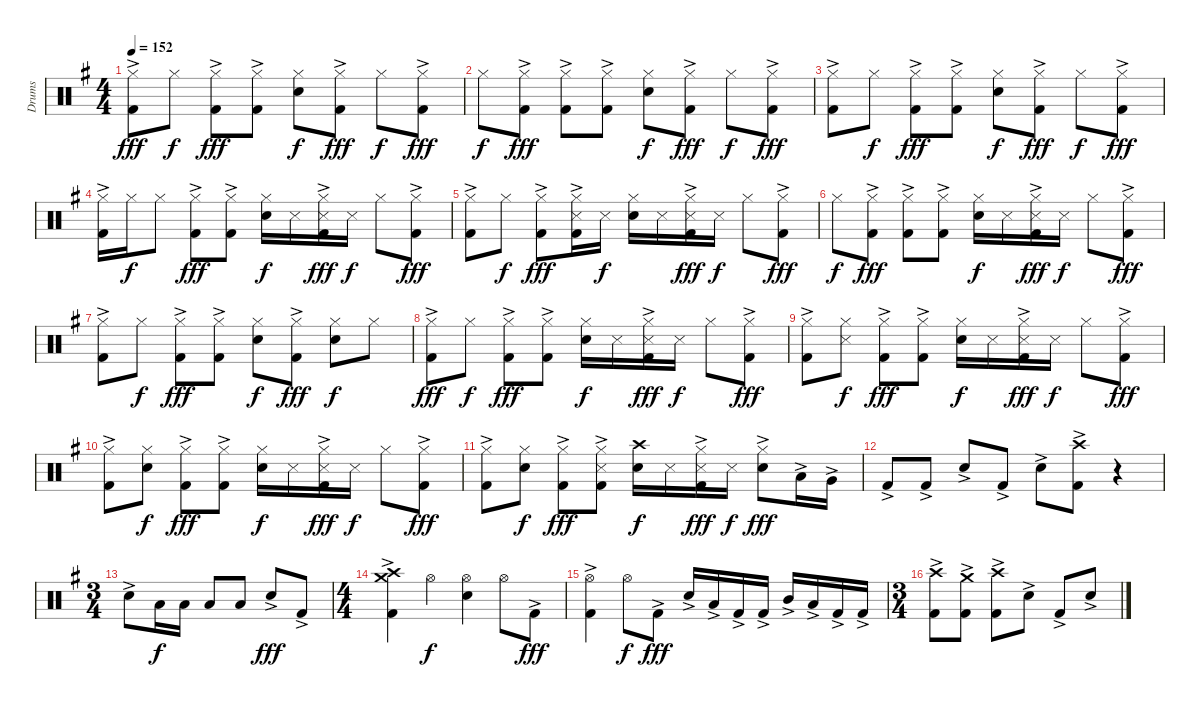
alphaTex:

\track ("Drums" "Drums") {instrument percussion}
\staff {score}
\articulation defaults
\ts (4 4)
\tempo 152
\clef neutral
\ks eminor
("Hi-Hat (closed)" "Kick (hit) 2"{ac}).8{dy fff} "Hi-Hat (closed)".8{dy f} ("Hi-Hat (closed)" "Kick (hit) 2"{ac}).8{dy fff} ("Hi-Hat (closed)" "Kick (hit) 2"{ac}).8 ("Hi-Hat (closed)" "Snare (hit) 2").8{dy f} ("Hi-Hat (closed)" "Kick (hit) 2"{ac}).8{dy fff} "Hi-Hat (closed)".8{dy f} ("Hi-Hat (closed)" "Kick (hit) 2"{ac}).8{dy fff} |
"Hi-Hat (closed)".8{dy f} ("Hi-Hat (closed)" "Kick (hit) 2"{ac}).8{dy fff} ("Hi-Hat (closed)" "Kick (hit) 2"{ac}).8 ("Hi-Hat (closed)" "Kick (hit) 2"{ac}).8 ("Hi-Hat (closed)" "Snare (hit) 2").8{dy f} ("Hi-Hat (closed)" "Kick (hit) 2"{ac}).8{dy fff} "Hi-Hat (closed)".8{dy f} ("Hi-Hat (closed)" "Kick (hit) 2"{ac}).8{dy fff} |
("Hi-Hat (closed)" "Kick (hit) 2"{ac}).8 "Hi-Hat (closed)".8{dy f} ("Hi-Hat (closed)" "Kick (hit) 2"{ac}).8{dy fff} ("Hi-Hat (closed)" "Kick (hit) 2"{ac}).8 ("Hi-Hat (closed)" "Snare (hit) 2").8{dy f} ("Hi-Hat (closed)" "Kick (hit) 2"{ac}).8{dy fff} "Hi-Hat (closed)".8{dy f} ("Hi-Hat (closed)" "Kick (hit) 2"{ac}).8{dy fff} |
("Hi-Hat (closed)" "Kick (hit) 2"{ac}).16 "Hi-Hat (closed)".16{dy f} "Hi-Hat (closed)".8 ("Hi-Hat (closed)" "Kick (hit) 2"{ac}).8{dy fff} ("Hi-Hat (closed)" "Kick (hit) 2"{ac}).8 ("Hi-Hat (closed)" "Snare (hit) 2").16{dy f} "Snare (side stick) 3".16 ("Hi-Hat (closed)" "Snare (side stick) 3" "Kick (hit) 2"{ac}).16{dy fff} "Snare (side stick) 3".16{dy f} "Hi-Hat (closed)".8 ("Hi-Hat (closed)" "Kick (hit) 2"{ac}).8{dy fff} |
("Hi-Hat (closed)" "Kick (hit) 2"{ac}).8 "Hi-Hat (closed)".8{dy f} ("Hi-Hat (closed)" "Kick (hit) 2"{ac}).8{dy fff} ("Hi-Hat (closed)" "Snare (side stick) 3" "Kick (hit) 2"{ac}).16 "Snare (side stick) 3".16{dy f} ("Hi-Hat (closed)" "Snare (hit) 2").16 "Snare (side stick) 3".16 ("Hi-Hat (closed)" "Snare (side stick) 3" "Kick (hit) 2"{ac}).16{dy fff} "Snare (side stick) 3".16{dy f} "Hi-Hat (closed)".8 ("Hi-Hat (closed)" "Kick (hit) 2"{ac}).8{dy fff} |
"Hi-Hat (closed)".8{dy f} ("Hi-Hat (closed)" "Kick (hit) 2"{ac}).8{dy fff} ("Hi-Hat (closed)" "Kick (hit) 2"{ac}).8 ("Hi-Hat (closed)" "Kick (hit) 2"{ac}).8 ("Hi-Hat (closed)" "Snare (hit) 2").16{dy f} "Snare (side stick) 3".16 ("Hi-Hat (closed)" "Snare (side stick) 3" "Kick (hit) 2"{ac}).16{dy fff} "Snare (side stick) 3".16{dy f} "Hi-Hat (closed)".8 ("Hi-Hat (closed)" "Kick (hit) 2"{ac}).8{dy fff} |
("Hi-Hat (closed)" "Kick (hit) 2"{ac}).8 "Hi-Hat (closed)".8{dy f} ("Hi-Hat (closed)" "Kick (hit) 2"{ac}).8{dy fff} ("Hi-Hat (closed)" "Kick (hit) 2"{ac}).8 ("Hi-Hat (closed)" "Snare (hit) 2").8{dy f} ("Hi-Hat (closed)" "Kick (hit) 2"{ac}).8{dy fff} ("Hi-Hat (closed)" "Snare (hit) 2").8{dy f} "Hi-Hat (closed)".8 |
("Hi-Hat (closed)" "Kick (hit) 2"{ac}).8{dy fff} "Hi-Hat (closed)".8{dy f} ("Hi-Hat (closed)" "Kick (hit) 2"{ac}).8{dy fff} ("Hi-Hat (closed)" "Kick (hit) 2"{ac}).8 ("Hi-Hat (closed)" "Snare (hit) 2").16{dy f} "Snare (side stick) 3".16 ("Hi-Hat (closed)" "Snare (side stick) 3" "Kick (hit) 2"{ac}).16{dy fff} "Snare (side stick) 3".16{dy f} "Hi-Hat (closed)".8 ("Hi-Hat (closed)" "Kick (hit) 2"{ac}).8{dy fff} |
("Hi-Hat (closed)" "Kick (hit) 2"{ac}).8 ("Hi-Hat (closed)" "Snare (side stick) 3").8{dy f} ("Hi-Hat (closed)" "Kick (hit) 2"{ac}).8{dy fff} ("Hi-Hat (closed)" "Kick (hit) 2"{ac}).8 ("Hi-Hat (closed)" "Snare (hit) 2").16{dy f} "Snare (side stick) 3".16 ("Hi-Hat (closed)" "Snare (side stick) 3" "Kick (hit) 2"{ac}).16{dy fff} "Snare (side stick) 3".16{dy f} "Hi-Hat (closed)".8 ("Hi-Hat (closed)" "Kick (hit) 2"{ac}).8{dy fff} |
("Hi-Hat (closed)" "Kick (hit) 2"{ac}).8 ("Hi-Hat (closed)" "Snare (hit) 2").8{dy f} ("Hi-Hat (closed)" "Kick (hit) 2"{ac}).8{dy fff} ("Hi-Hat (closed)" "Kick (hit) 2"{ac}).8 ("Hi-Hat (closed)" "Snare (hit) 2").16{dy f} "Snare (side stick) 3".16 ("Hi-Hat (closed)" "Snare (side stick) 3" "Kick (hit) 2"{ac}).16{dy fff} "Snare (side stick) 3".16{dy f} "Hi-Hat (closed)".8 ("Hi-Hat (closed)" "Kick (hit) 2"{ac}).8{dy fff} |
("Hi-Hat (closed)" "Kick (hit) 2"{ac}).8 ("Hi-Hat (closed)" "Snare (hit) 2").8{dy f} ("Hi-Hat (closed)" "Kick (hit) 2"{ac}).8{dy fff} ("Hi-Hat (closed)" "Snare (side stick) 3" "Kick (hit) 2"{ac}).8 ("Crash high (hit)" "Snare (hit) 2").16{dy f} "Snare (side stick) 3".16 ("Hi-Hat (closed)" "Snare (side stick) 3" "Kick (hit) 2"{ac}).16{dy fff} "Snare (side stick) 3".16{dy f} ("Hi-Hat (closed)" "Snare (hit) 2"{ac}).8{dy fff} "Low Tom (hit)"{ac}.16 "Very Low Tom (hit)"{ac}.16 |
"Kick (hit) 2"{ac}.8 "Kick (hit) 2"{ac}.8 "Snare (hit) 2"{ac}.8 "Kick (hit) 2"{ac}.8 "Snare (hit) 2"{ac}.8 ("Crash high (hit)"{ac} "Kick (hit) 2"{ac}).8 r.4 |
\ts (3 4)
"Snare (hit) 2"{ac}.8 "Low Tom (hit)".16{dy f} "Low Tom (hit)".16 "Low Tom (hit)".8 "Low Tom (hit)".8 "Snare (hit) 2"{ac}.8{dy fff} "Kick (hit) 2"{ac}.8 |
\ts (4 4)
("Crash high (hit)"{ac} "Crash medium (hit)"{ac} "Kick (hit) 2"{ac}).4 "Hi-Hat (open)".4{dy f} ("Hi-Hat (open)" "Snare (hit) 2").4 "Hi-Hat (open)".8 "Kick (hit) 2"{ac}.8{dy fff} |
("Hi-Hat (open)" "Kick (hit) 2"{ac}).4 "Hi-Hat (open)".8{dy f} "Kick (hit) 2"{ac}.8{dy fff} "Snare (hit) 2"{ac}.16 "Low Tom (hit)"{ac}.16 "Kick (hit) 2"{ac}.16 "Kick (hit) 2"{ac}.16 "Mid Tom (hit)"{ac}.16 "Low Tom (hit)"{ac}.16 "Kick (hit) 2"{ac}.16 "Kick (hit) 2"{ac}.16 |
\ts (3 4)
("Crash high (hit)" "Kick (hit) 2"{ac}).8 ("Crash medium (hit)" "Kick (hit) 2"{ac}).8 ("Crash high (hit)" "Kick (hit) 2"{ac}).8 "Snare (hit) 2"{ac}.8 "Kick (hit) 2"{ac}.8 "Snare (hit) 2"{ac}.8
